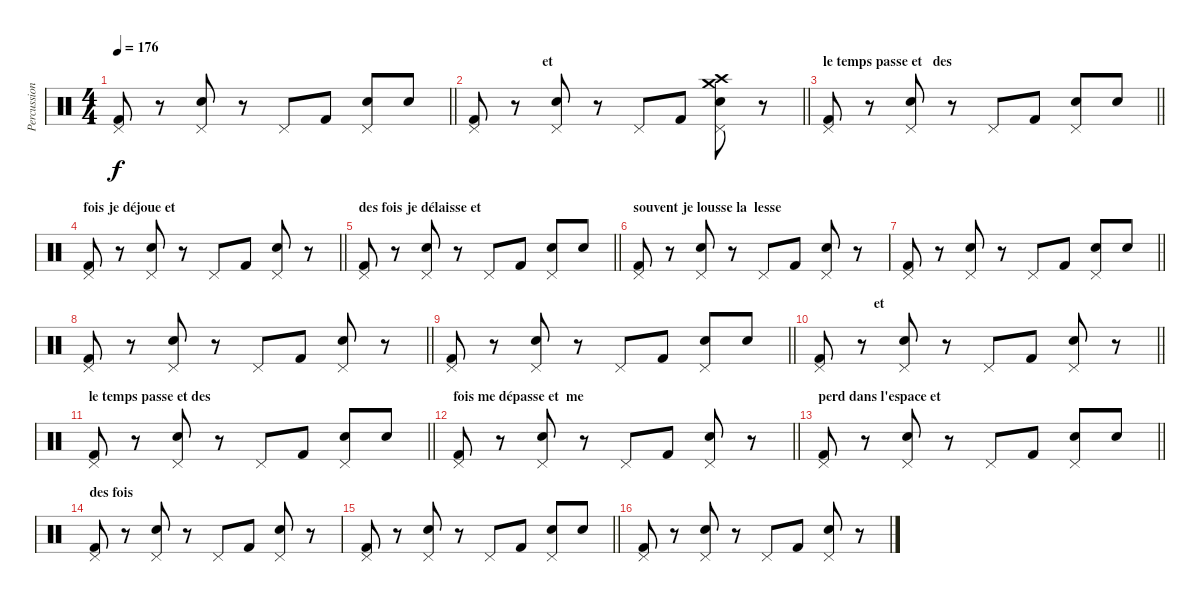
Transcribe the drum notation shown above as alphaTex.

\track ("Percussions" "Percussion") {instrument percussion}
\staff {score}
\articulation defaults
\ts (4 4)
\tempo 176
\clef neutral
\barLineRight lightlight
\ks c
("Pedal Hi-Hat (hit)" "Kick (hit) 2").8{dy f} r.8 ("Pedal Hi-Hat (hit)" "Snare (hit) 2").8 r.8 "Pedal Hi-Hat (hit)".8 "Kick (hit) 2".8 ("Pedal Hi-Hat (hit)" "Snare (hit) 2").8 "Snare (hit) 2".8 |
\section ("" "                     et")
\barLineRight lightlight
("Pedal Hi-Hat (hit)" "Kick (hit) 2").8 r.8 ("Pedal Hi-Hat (hit)" "Snare (hit) 2").8 r.8 "Pedal Hi-Hat (hit)".8 "Kick (hit) 2".8 ("Pedal Hi-Hat (hit)" "Snare (hit) 2" "Crash medium (hit)" "Crash high (hit)").8 r.8 |
\section ("" "le temps passe et   des")
\barLineRight lightlight
("Pedal Hi-Hat (hit)" "Kick (hit) 2").8 r.8 ("Pedal Hi-Hat (hit)" "Snare (hit) 2").8 r.8 "Pedal Hi-Hat (hit)".8 "Kick (hit) 2".8 ("Pedal Hi-Hat (hit)" "Snare (hit) 2").8 "Snare (hit) 2".8 |
\section ("" "fois je déjoue et ")
\barLineRight lightlight
("Pedal Hi-Hat (hit)" "Kick (hit) 2").8 r.8 ("Pedal Hi-Hat (hit)" "Snare (hit) 2").8 r.8 "Pedal Hi-Hat (hit)".8 "Kick (hit) 2".8 ("Pedal Hi-Hat (hit)" "Snare (hit) 2").8 r.8 |
\section ("" "des fois je délaisse et")
\barLineRight lightlight
("Pedal Hi-Hat (hit)" "Kick (hit) 2").8 r.8 ("Pedal Hi-Hat (hit)" "Snare (hit) 2").8 r.8 "Pedal Hi-Hat (hit)".8 "Kick (hit) 2".8 ("Pedal Hi-Hat (hit)" "Snare (hit) 2").8 "Snare (hit) 2".8 |
\section ("" "souvent je lousse la  lesse")
("Pedal Hi-Hat (hit)" "Kick (hit) 2").8 r.8 ("Pedal Hi-Hat (hit)" "Snare (hit) 2").8 r.8 "Pedal Hi-Hat (hit)".8 "Kick (hit) 2".8 ("Pedal Hi-Hat (hit)" "Snare (hit) 2").8 r.8 |
\barLineRight lightlight
("Pedal Hi-Hat (hit)" "Kick (hit) 2").8 r.8 ("Pedal Hi-Hat (hit)" "Snare (hit) 2").8 r.8 "Pedal Hi-Hat (hit)".8 "Kick (hit) 2".8 ("Pedal Hi-Hat (hit)" "Snare (hit) 2").8 "Snare (hit) 2".8 |
\barLineRight lightlight
("Pedal Hi-Hat (hit)" "Kick (hit) 2").8 r.8 ("Pedal Hi-Hat (hit)" "Snare (hit) 2").8 r.8 "Pedal Hi-Hat (hit)".8 "Kick (hit) 2".8 ("Pedal Hi-Hat (hit)" "Snare (hit) 2").8 r.8 |
\barLineRight lightlight
("Pedal Hi-Hat (hit)" "Kick (hit) 2").8 r.8 ("Pedal Hi-Hat (hit)" "Snare (hit) 2").8 r.8 "Pedal Hi-Hat (hit)".8 "Kick (hit) 2".8 ("Pedal Hi-Hat (hit)" "Snare (hit) 2").8 "Snare (hit) 2".8 |
\section ("" "                 et")
\barLineRight lightlight
("Pedal Hi-Hat (hit)" "Kick (hit) 2").8 r.8 ("Pedal Hi-Hat (hit)" "Snare (hit) 2").8 r.8 "Pedal Hi-Hat (hit)".8 "Kick (hit) 2".8 ("Pedal Hi-Hat (hit)" "Snare (hit) 2").8 r.8 |
\section ("" "le temps passe et des")
\barLineRight lightlight
("Pedal Hi-Hat (hit)" "Kick (hit) 2").8 r.8 ("Pedal Hi-Hat (hit)" "Snare (hit) 2").8 r.8 "Pedal Hi-Hat (hit)".8 "Kick (hit) 2".8 ("Pedal Hi-Hat (hit)" "Snare (hit) 2").8 "Snare (hit) 2".8 |
\section ("" "fois me dépasse et  me")
\barLineRight lightlight
("Pedal Hi-Hat (hit)" "Kick (hit) 2").8 r.8 ("Pedal Hi-Hat (hit)" "Snare (hit) 2").8 r.8 "Pedal Hi-Hat (hit)".8 "Kick (hit) 2".8 ("Pedal Hi-Hat (hit)" "Snare (hit) 2").8 r.8 |
\section ("" "perd dans l'espace et")
\barLineRight lightlight
("Pedal Hi-Hat (hit)" "Kick (hit) 2").8 r.8 ("Pedal Hi-Hat (hit)" "Snare (hit) 2").8 r.8 "Pedal Hi-Hat (hit)".8 "Kick (hit) 2".8 ("Pedal Hi-Hat (hit)" "Snare (hit) 2").8 "Snare (hit) 2".8 |
\section ("" "des fois")
("Pedal Hi-Hat (hit)" "Kick (hit) 2").8 r.8 ("Pedal Hi-Hat (hit)" "Snare (hit) 2").8 r.8 "Pedal Hi-Hat (hit)".8 "Kick (hit) 2".8 ("Pedal Hi-Hat (hit)" "Snare (hit) 2").8 r.8 |
\barLineRight lightlight
("Pedal Hi-Hat (hit)" "Kick (hit) 2").8 r.8 ("Pedal Hi-Hat (hit)" "Snare (hit) 2").8 r.8 "Pedal Hi-Hat (hit)".8 "Kick (hit) 2".8 ("Pedal Hi-Hat (hit)" "Snare (hit) 2").8 "Snare (hit) 2".8 |
("Pedal Hi-Hat (hit)" "Kick (hit) 2").8 r.8 ("Pedal Hi-Hat (hit)" "Snare (hit) 2").8 r.8 "Pedal Hi-Hat (hit)".8 "Kick (hit) 2".8 ("Pedal Hi-Hat (hit)" "Snare (hit) 2").8 r.8
